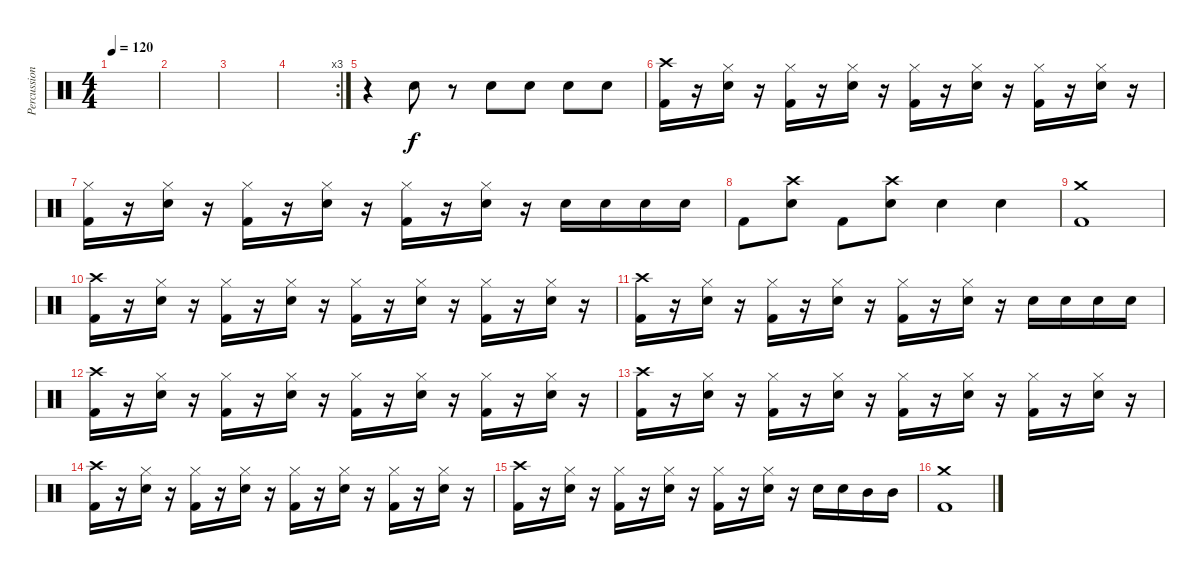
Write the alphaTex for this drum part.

\track ("Percussions" "Percussion") {instrument percussion}
\staff {score}
\articulation defaults
\ts (4 4)
\tempo 120
\clef neutral
\ks c
|
|
|
\rc 3
|
r.4 "Electric Snare (hit)".8 r.8 "Electric Snare (hit)".8 "Electric Snare (hit)".8 "Electric Snare (hit)".8 "Electric Snare (hit)".8 |
("Crash high (hit)" "Kick (hit) 2").16 r.16 ("Hi-Hat (closed)" "Electric Snare (hit)").16 r.16 ("Hi-Hat (closed)" "Kick (hit) 2").16 r.16 ("Hi-Hat (closed)" "Electric Snare (hit)").16 r.16 ("Hi-Hat (closed)" "Kick (hit) 2").16 r.16 ("Hi-Hat (closed)" "Electric Snare (hit)").16 r.16 ("Hi-Hat (closed)" "Kick (hit) 2").16 r.16 ("Hi-Hat (closed)" "Electric Snare (hit)").16 r.16 |
("Hi-Hat (closed)" "Kick (hit) 2").16 r.16 ("Hi-Hat (closed)" "Electric Snare (hit)").16 r.16 ("Hi-Hat (closed)" "Kick (hit) 2").16 r.16 ("Hi-Hat (closed)" "Electric Snare (hit)").16 r.16 ("Hi-Hat (closed)" "Kick (hit) 2").16 r.16 ("Hi-Hat (closed)" "Electric Snare (hit)").16 r.16 "Electric Snare (hit)".16 "Electric Snare (hit)".16 "Electric Snare (hit)".16 "Electric Snare (hit)".16 |
"Kick (hit) 2".8 ("Crash high (hit)" "Electric Snare (hit)").8 "Kick (hit) 2".8 ("Crash high (hit)" "Electric Snare (hit)").8 "Electric Snare (hit)".4 "Electric Snare (hit)".4 |
("Crash medium (hit)" "Kick (hit) 2").1 |
("Crash high (hit)" "Kick (hit) 2").16 r.16 ("Hi-Hat (closed)" "Electric Snare (hit)").16 r.16 ("Hi-Hat (closed)" "Kick (hit) 2").16 r.16 ("Hi-Hat (closed)" "Electric Snare (hit)").16 r.16 ("Hi-Hat (closed)" "Kick (hit) 2").16 r.16 ("Hi-Hat (closed)" "Electric Snare (hit)").16 r.16 ("Hi-Hat (closed)" "Kick (hit) 2").16 r.16 ("Hi-Hat (closed)" "Electric Snare (hit)").16 r.16 |
("Crash high (hit)" "Kick (hit) 2").16 r.16 ("Hi-Hat (closed)" "Electric Snare (hit)").16 r.16 ("Hi-Hat (closed)" "Kick (hit) 2").16 r.16 ("Hi-Hat (closed)" "Electric Snare (hit)").16 r.16 ("Hi-Hat (closed)" "Kick (hit) 2").16 r.16 ("Hi-Hat (closed)" "Electric Snare (hit)").16 r.16 "Electric Snare (hit)".16 "Electric Snare (hit)".16 "Electric Snare (hit)".16 "Electric Snare (hit)".16 |
("Crash high (hit)" "Kick (hit) 2").16 r.16 ("Hi-Hat (closed)" "Electric Snare (hit)").16 r.16 ("Hi-Hat (closed)" "Kick (hit) 2").16 r.16 ("Hi-Hat (closed)" "Electric Snare (hit)").16 r.16 ("Hi-Hat (closed)" "Kick (hit) 2").16 r.16 ("Hi-Hat (closed)" "Electric Snare (hit)").16 r.16 ("Hi-Hat (closed)" "Kick (hit) 2").16 r.16 ("Hi-Hat (closed)" "Electric Snare (hit)").16 r.16 |
("Crash high (hit)" "Kick (hit) 2").16 r.16 ("Hi-Hat (closed)" "Electric Snare (hit)").16 r.16 ("Hi-Hat (closed)" "Kick (hit) 2").16 r.16 ("Hi-Hat (closed)" "Electric Snare (hit)").16 r.16 ("Hi-Hat (closed)" "Kick (hit) 2").16 r.16 ("Hi-Hat (closed)" "Electric Snare (hit)").16 r.16 ("Hi-Hat (closed)" "Kick (hit) 2").16 r.16 ("Hi-Hat (closed)" "Electric Snare (hit)").16 r.16 |
("Crash high (hit)" "Kick (hit) 2").16 r.16 ("Hi-Hat (closed)" "Electric Snare (hit)").16 r.16 ("Hi-Hat (closed)" "Kick (hit) 2").16 r.16 ("Hi-Hat (closed)" "Electric Snare (hit)").16 r.16 ("Hi-Hat (closed)" "Kick (hit) 2").16 r.16 ("Hi-Hat (closed)" "Electric Snare (hit)").16 r.16 ("Hi-Hat (closed)" "Kick (hit) 2").16 r.16 ("Hi-Hat (closed)" "Electric Snare (hit)").16 r.16 |
("Crash high (hit)" "Kick (hit) 2").16 r.16 ("Hi-Hat (closed)" "Electric Snare (hit)").16 r.16 ("Hi-Hat (closed)" "Kick (hit) 2").16 r.16 ("Hi-Hat (closed)" "Electric Snare (hit)").16 r.16 ("Hi-Hat (closed)" "Kick (hit) 2").16 r.16 ("Hi-Hat (closed)" "Electric Snare (hit)").16 r.16 "Electric Snare (hit)".16 "Electric Snare (hit)".16 "Mid Tom (hit)".16 "Mid Tom (hit)".16 |
("Crash medium (hit)" "Kick (hit) 2").1
